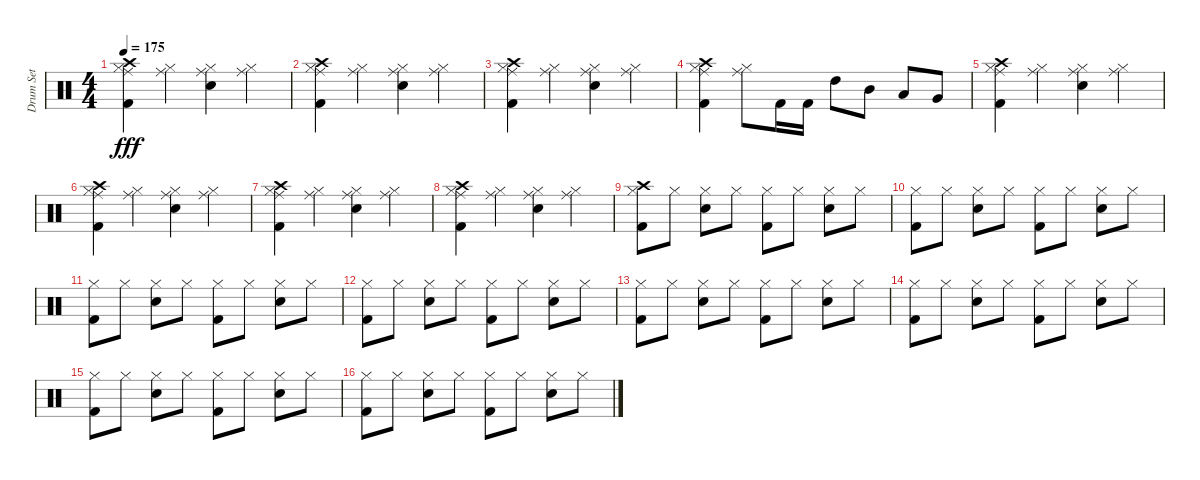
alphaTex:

\track ("Drum Set" "Drum Set") {instrument percussion}
\staff {score}
\articulation defaults
\ts (4 4)
\tempo 175
\clef neutral
\ks c
("Kick (hit) 2" "Hi-Hat (closed)" "Ride (middle)" "Crash high (hit)").4{dy fff} ("Ride (middle)" "Hi-Hat (closed)").4 ("Electric Snare (hit)" "Ride (middle)" "Hi-Hat (closed)").4 ("Ride (middle)" "Hi-Hat (closed)").4 |
("Kick (hit) 2" "Hi-Hat (closed)" "Ride (middle)" "Crash high (hit)").4 ("Hi-Hat (closed)" "Ride (middle)").4 ("Electric Snare (hit)" "Ride (middle)" "Hi-Hat (closed)").4 ("Hi-Hat (closed)" "Ride (middle)").4 |
("Kick (hit) 2" "Hi-Hat (closed)" "Ride (middle)" "Crash high (hit)").4 ("Ride (middle)" "Hi-Hat (closed)").4 ("Electric Snare (hit)" "Hi-Hat (closed)" "Ride (middle)").4 ("Ride (middle)" "Hi-Hat (closed)").4 |
("Kick (hit) 2" "Ride (middle)" "Crash high (hit)" "Hi-Hat (closed)").4 ("Ride (middle)" "Hi-Hat (closed)").8 "Kick (hit) 2".16 "Kick (hit) 2".16 "High Tom (hit)".8 "Mid Tom (hit)".8 "Low Tom (hit)".8 "Very Low Tom (hit)".8 |
("Kick (hit) 2" "Hi-Hat (closed)" "Crash high (hit)" "Ride (middle)").4 ("Hi-Hat (closed)" "Ride (middle)").4 ("Electric Snare (hit)" "Hi-Hat (closed)" "Ride (middle)").4 ("Hi-Hat (closed)" "Ride (middle)").4 |
("Kick (hit) 2" "Ride (middle)" "Hi-Hat (closed)" "Crash high (hit)").4 ("Hi-Hat (closed)" "Ride (middle)").4 ("Electric Snare (hit)" "Hi-Hat (closed)" "Ride (middle)").4 ("Ride (middle)" "Hi-Hat (closed)").4 |
("Kick (hit) 2" "Crash high (hit)" "Hi-Hat (closed)" "Ride (middle)").4 ("Ride (middle)" "Hi-Hat (closed)").4 ("Electric Snare (hit)" "Ride (middle)" "Hi-Hat (closed)").4 ("Ride (middle)" "Hi-Hat (closed)").4 |
("Kick (hit) 2" "Ride (middle)" "Hi-Hat (closed)" "Crash high (hit)").4 ("Hi-Hat (closed)" "Ride (middle)").4 ("Electric Snare (hit)" "Ride (middle)" "Hi-Hat (closed)").4 ("Ride (middle)" "Hi-Hat (closed)").4 |
("Kick (hit) 2" "Hi-Hat (closed)" "Crash high (hit)").8 "Hi-Hat (closed)".8 ("Electric Snare (hit)" "Hi-Hat (closed)").8 "Hi-Hat (closed)".8 ("Kick (hit) 2" "Hi-Hat (closed)").8 "Hi-Hat (closed)".8 ("Electric Snare (hit)" "Hi-Hat (closed)").8 "Hi-Hat (closed)".8 |
("Kick (hit) 2" "Hi-Hat (closed)").8 "Hi-Hat (closed)".8 ("Electric Snare (hit)" "Hi-Hat (closed)").8 "Hi-Hat (closed)".8 ("Kick (hit) 2" "Hi-Hat (closed)").8 "Hi-Hat (closed)".8 ("Electric Snare (hit)" "Hi-Hat (closed)").8 "Hi-Hat (closed)".8 |
("Kick (hit) 2" "Hi-Hat (closed)").8 "Hi-Hat (closed)".8 ("Electric Snare (hit)" "Hi-Hat (closed)").8 "Hi-Hat (closed)".8 ("Kick (hit) 2" "Hi-Hat (closed)").8 "Hi-Hat (closed)".8 ("Electric Snare (hit)" "Hi-Hat (closed)").8 "Hi-Hat (closed)".8 |
("Kick (hit) 2" "Hi-Hat (closed)").8 "Hi-Hat (closed)".8 ("Electric Snare (hit)" "Hi-Hat (closed)").8 "Hi-Hat (closed)".8 ("Kick (hit) 2" "Hi-Hat (closed)").8 "Hi-Hat (closed)".8 ("Electric Snare (hit)" "Hi-Hat (closed)").8 "Hi-Hat (closed)".8 |
("Kick (hit) 2" "Hi-Hat (closed)").8 "Hi-Hat (closed)".8 ("Electric Snare (hit)" "Hi-Hat (closed)").8 "Hi-Hat (closed)".8 ("Kick (hit) 2" "Hi-Hat (closed)").8 "Hi-Hat (closed)".8 ("Electric Snare (hit)" "Hi-Hat (closed)").8 "Hi-Hat (closed)".8 |
("Kick (hit) 2" "Hi-Hat (closed)").8 "Hi-Hat (closed)".8 ("Electric Snare (hit)" "Hi-Hat (closed)").8 "Hi-Hat (closed)".8 ("Kick (hit) 2" "Hi-Hat (closed)").8 "Hi-Hat (closed)".8 ("Electric Snare (hit)" "Hi-Hat (closed)").8 "Hi-Hat (closed)".8 |
("Kick (hit) 2" "Hi-Hat (closed)").8 "Hi-Hat (closed)".8 ("Electric Snare (hit)" "Hi-Hat (closed)").8 "Hi-Hat (closed)".8 ("Kick (hit) 2" "Hi-Hat (closed)").8 "Hi-Hat (closed)".8 ("Electric Snare (hit)" "Hi-Hat (closed)").8 "Hi-Hat (closed)".8 |
("Kick (hit) 2" "Hi-Hat (closed)").8 "Hi-Hat (closed)".8 ("Electric Snare (hit)" "Hi-Hat (closed)").8 "Hi-Hat (closed)".8 ("Kick (hit) 2" "Hi-Hat (closed)").8 "Hi-Hat (closed)".8 ("Electric Snare (hit)" "Hi-Hat (closed)").8 "Hi-Hat (closed)".8
